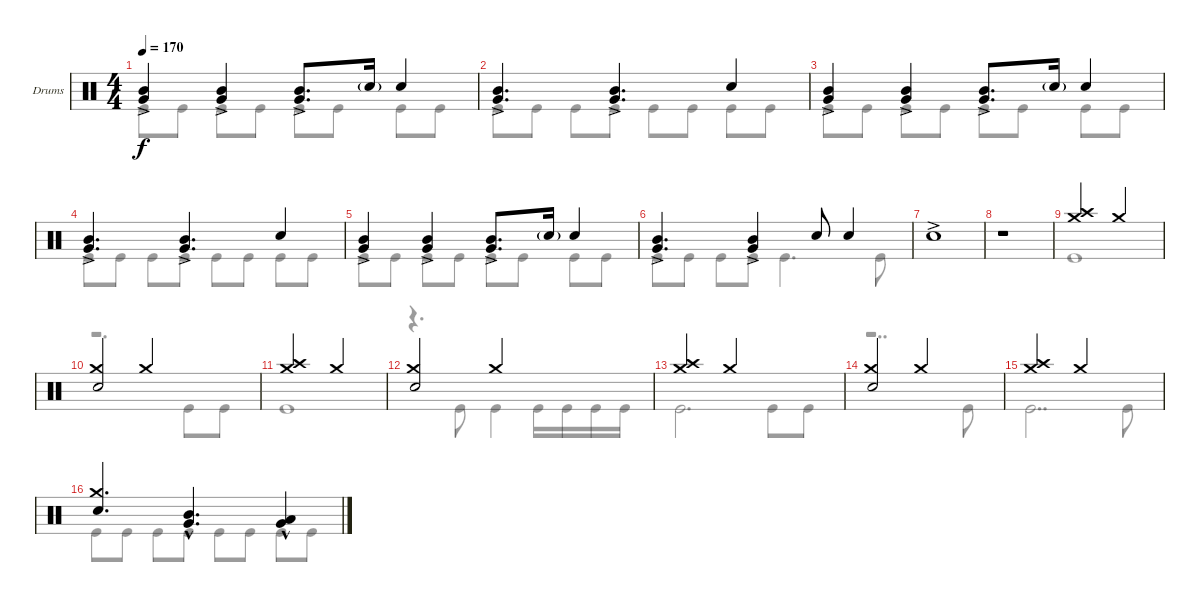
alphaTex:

\defaultSystemsLayout 4
\bracketExtendMode groupsimilarinstruments
\firstSystemTrackNameOrientation horizontal
\otherSystemsTrackNameOrientation horizontal
\track ("Drumkit" "Drums") {instrument percussion}
\staff {score}
\articulation defaults
\voice
\ts (4 4)
\tempo 170
\clef neutral
\ks c
("Very Low Tom (hit)"{ac} "Mid Tom (hit)"{ac}).4{dy f} ("Very Low Tom (hit)"{ac} "Mid Tom (hit)"{ac}).4 ("Very Low Tom (hit)"{ac} "Mid Tom (hit)"{ac}).8{d} "Snare (hit) 2"{g}.16 "Snare (hit) 2".4 |
("Mid Tom (hit)"{ac} "Very Low Tom (hit)"{ac}).4{d} ("Mid Tom (hit)"{ac} "Very Low Tom (hit)"{ac}).4{d} "Snare (hit) 2".4 |
("Very Low Tom (hit)"{ac} "Mid Tom (hit)"{ac}).4 ("Very Low Tom (hit)"{ac} "Mid Tom (hit)"{ac}).4 ("Very Low Tom (hit)"{ac} "Mid Tom (hit)"{ac}).8{d} "Snare (hit) 2"{g}.16 "Snare (hit) 2".4 |
("Mid Tom (hit)"{ac} "Very Low Tom (hit)"{ac}).4{d} ("Mid Tom (hit)"{ac} "Very Low Tom (hit)"{ac}).4{d} "Snare (hit) 2".4 |
("Very Low Tom (hit)"{ac} "Mid Tom (hit)"{ac}).4 ("Very Low Tom (hit)"{ac} "Mid Tom (hit)"{ac}).4 ("Very Low Tom (hit)"{ac} "Mid Tom (hit)"{ac}).8{d} "Snare (hit) 2"{g}.16 "Snare (hit) 2".4 |
("Mid Tom (hit)"{ac} "Very Low Tom (hit)"{ac}).4{d} ("Mid Tom (hit)"{ac} "Very Low Tom (hit)"{ac}).4 "Snare (hit) 2".8 "Snare (hit) 2".4 |
"Snare (hit) 2"{ac}.1 |
r.1 |
("Crash medium (hit)" "Crash high (hit)").2 "Crash medium (hit)".2 |
("Crash medium (hit)" "Snare (hit) 2").2 "Crash medium (hit)".2 |
("Crash medium (hit)" "Crash high (hit)").2 "Crash medium (hit)".2 |
("Crash medium (hit)" "Snare (hit) 2").2 "Crash medium (hit)".2 |
("Crash medium (hit)" "Crash high (hit)").2 "Crash medium (hit)".2 |
("Crash medium (hit)" "Snare (hit) 2").2 "Crash medium (hit)".2 |
("Crash medium (hit)" "Crash high (hit)").2 "Crash medium (hit)".2 |
("Crash medium (hit)" "Snare (hit) 2").4{d} ("Mid Tom (hit)"{hac} "Very Low Tom (hit)"{hac}).4{d} ("Low Tom (hit)"{hac} "Very Low Tom (hit)"{hac}).4
\voice
\clef neutral
\ottava regular
\simile none
\ks c "Kick (hit)".8{dy f} "Kick (hit)".8 "Kick (hit)".8 "Kick (hit)".8 "Kick (hit)".8 "Kick (hit)".8 "Kick (hit)".8 "Kick (hit)".8
|
"Kick (hit)".8 "Kick (hit)".8 "Kick (hit)".8 "Kick (hit)".8 "Kick (hit)".8 "Kick (hit)".8 "Kick (hit)".8 "Kick (hit)".8 |
"Kick (hit)".8 "Kick (hit)".8 "Kick (hit)".8 "Kick (hit)".8 "Kick (hit)".8 "Kick (hit)".8 "Kick (hit)".8 "Kick (hit)".8 |
"Kick (hit)".8 "Kick (hit)".8 "Kick (hit)".8 "Kick (hit)".8 "Kick (hit)".8 "Kick (hit)".8 "Kick (hit)".8 "Kick (hit)".8 |
"Kick (hit)".8 "Kick (hit)".8 "Kick (hit)".8 "Kick (hit)".8 "Kick (hit)".8 "Kick (hit)".8 "Kick (hit)".8 "Kick (hit)".8 |
"Kick (hit)".8 "Kick (hit)".8 "Kick (hit)".8 "Kick (hit)".8 "Kick (hit)".4{d} "Kick (hit)".8 |
|
|
"Kick (hit)".1 |
r.2{d} "Kick (hit)".8 "Kick (hit)".8 |
"Kick (hit)".1 |
r.4{d} "Kick (hit)".8 "Kick (hit)".4 "Kick (hit)".16 "Kick (hit)".16 "Kick (hit)".16 "Kick (hit)".16 |
"Kick (hit)".2{d} "Kick (hit)".8 "Kick (hit)".8 |
r.2{dd} "Kick (hit)".8 |
"Kick (hit)".2{dd} "Kick (hit)".8 |
"Kick (hit)".8 "Kick (hit)".8 "Kick (hit)".8 "Kick (hit)".8 "Kick (hit)".8 "Kick (hit)".8 "Kick (hit)".8 "Kick (hit)".8
